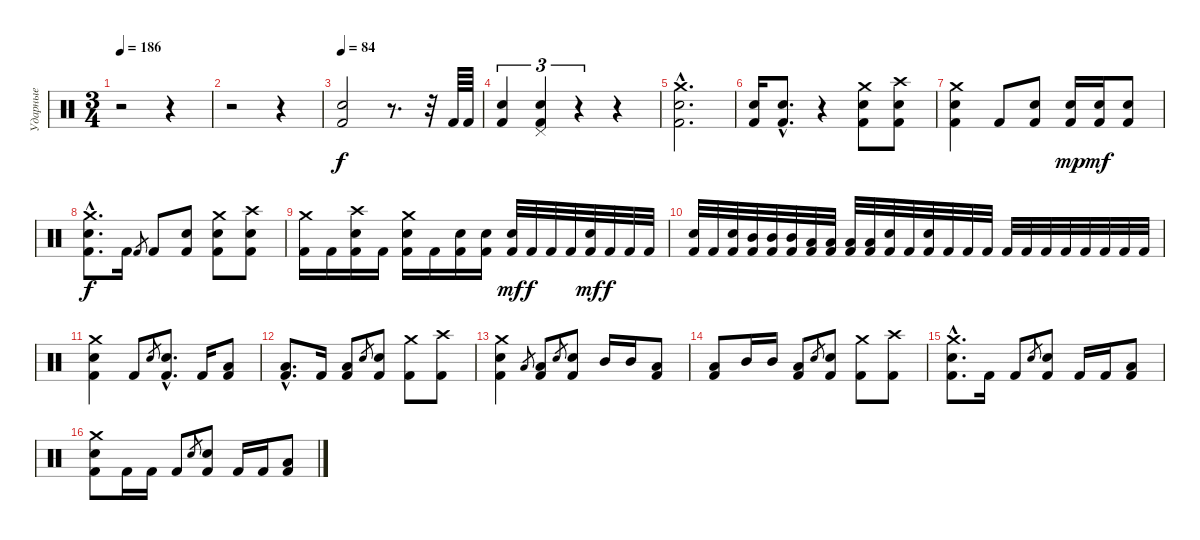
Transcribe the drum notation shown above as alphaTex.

\track ("Ударные" "Ударные") {instrument percussion}
\staff {score}
\articulation defaults
\ts (3 4)
\tempo 186
\clef neutral
\ks c
r.2{dy f} r.4 |
r.2 r.4 |
\tempo 84
("Snare (hit) 2" "Kick (hit) 2").2 r.8{d} r.32 "Kick (hit) 2".64 "Kick (hit) 2".64 |
("Snare (hit) 2" "Kick (hit) 2").4{tu (3 2)} ("Pedal Hi-Hat (hit)" "Snare (hit) 2" "Kick (hit) 2").4{tu (3 2)} r.4{tu (3 2)} r.4 |
("Crash medium (hit)"{hac} "Snare (hit) 2"{hac} "Kick (hit) 2"{hac}).2{d} |
("Snare (hit) 2" "Kick (hit) 2").16 ("Snare (hit) 2"{hac} "Kick (hit) 2"{hac}).8{d} r.4 ("Crash medium (hit)" "Snare (hit) 2" "Kick (hit) 2").8 ("Crash high (hit)" "Snare (hit) 2" "Kick (hit) 2").8 |
("Crash medium (hit)" "Snare (hit) 2" "Kick (hit) 2").4 "Kick (hit) 2".8 ("Snare (hit) 2" "Kick (hit) 2").8 ("Electric Snare (hit)" "Kick (hit) 2").16{dy mp} ("Electric Snare (hit)" "Kick (hit) 2").16{dy mf} ("Snare (hit) 2" "Kick (hit) 2").8 |
("Crash medium (hit)"{hac} "Snare (hit) 2"{hac} "Kick (hit) 2"{hac}).8{d dy f} "Kick (hit) 2".16 "Kick (hit) 2".8{gr} "Kick (hit) 2".8 ("Snare (hit) 2" "Kick (hit) 2").8 ("Crash medium (hit)" "Snare (hit) 2" "Kick (hit) 2").8 ("Crash high (hit)" "Snare (hit) 2" "Kick (hit) 2").8 |
("Crash medium (hit)" "Kick (hit) 2").16 "Kick (hit) 2".16 ("Crash high (hit)" "Snare (hit) 2" "Kick (hit) 2").16 "Kick (hit) 2".16 ("Crash medium (hit)" "Snare (hit) 2" "Kick (hit) 2").16 "Kick (hit) 2".16 ("Snare (hit) 2" "Kick (hit) 2").16 ("Snare (hit) 2" "Kick (hit) 2").16 ("Snare (hit) 2" "Kick (hit) 2").32{dy mf} "Kick (hit) 2".32{dy f} "Kick (hit) 2".32 "Kick (hit) 2".32 ("Snare (hit) 2" "Kick (hit) 2").32{dy mf} "Kick (hit) 2".32{dy f} "Kick (hit) 2".32 "Kick (hit) 2".32 |
("Snare (hit) 2" "Kick (hit) 2").32 "Kick (hit) 2".32 ("Snare (hit) 2" "Kick (hit) 2").32 ("Mid Tom (hit)" "Kick (hit) 2").32 ("Mid Tom (hit)" "Kick (hit) 2").32 ("Mid Tom (hit)" "Kick (hit) 2").32 ("Low Tom (hit)" "Kick (hit) 2").32 ("Low Tom (hit)" "Kick (hit) 2").32 ("Low Tom (hit)" "Kick (hit) 2").32 ("Low Tom (hit)" "Kick (hit) 2").32 ("Snare (hit) 2" "Kick (hit) 2").32 "Kick (hit) 2".32 ("Snare (hit) 2" "Kick (hit) 2").32 "Kick (hit) 2".32 "Kick (hit) 2".32 "Kick (hit) 2".32 "Kick (hit) 2".32 "Kick (hit) 2".32 "Kick (hit) 2".32 "Kick (hit) 2".32 "Kick (hit) 2".32 "Kick (hit) 2".32 "Kick (hit) 2".32 "Kick (hit) 2".32 |
("Crash medium (hit)" "Snare (hit) 2" "Kick (hit) 2").4 "Kick (hit) 2".8 "Snare (hit) 2".8{gr} ("Snare (hit) 2"{hac} "Kick (hit) 2"{hac}).8{d} "Kick (hit) 2".16 ("Low Tom (hit)" "Kick (hit) 2").8 |
("Low Tom (hit)"{hac} "Kick (hit) 2"{hac}).8{d} "Kick (hit) 2".16 ("Low Tom (hit)" "Kick (hit) 2").8 "Snare (hit) 2".8{gr} ("Snare (hit) 2" "Kick (hit) 2").8 ("Crash medium (hit)" "Kick (hit) 2").8 ("Crash high (hit)" "Kick (hit) 2").8 |
("Crash medium (hit)" "Snare (hit) 2" "Kick (hit) 2").4 "Low Tom (hit)".8{gr} ("Low Tom (hit)" "Kick (hit) 2").8 "Snare (hit) 2".8{gr} ("Snare (hit) 2" "Kick (hit) 2").8 "Mid Tom (hit)".16 "Mid Tom (hit)".16 ("Low Tom (hit)" "Kick (hit) 2").8 |
("Low Tom (hit)" "Kick (hit) 2").8 "Mid Tom (hit)".16 "Mid Tom (hit)".16 ("Low Tom (hit)" "Kick (hit) 2").8 "Snare (hit) 2".8{gr} ("Snare (hit) 2" "Kick (hit) 2").8 ("Crash medium (hit)" "Kick (hit) 2").8 ("Crash high (hit)" "Kick (hit) 2").8 |
("Crash medium (hit)"{hac} "Snare (hit) 2"{hac} "Kick (hit) 2"{hac}).8{d} "Kick (hit) 2".16 "Kick (hit) 2".8 "Snare (hit) 2".8{gr} ("Snare (hit) 2" "Kick (hit) 2").8 "Kick (hit) 2".16 "Kick (hit) 2".16 ("Low Tom (hit)" "Kick (hit) 2").8 |
("Crash medium (hit)" "Snare (hit) 2" "Kick (hit) 2").8 "Kick (hit) 2".16 "Kick (hit) 2".16 "Kick (hit) 2".8 "Snare (hit) 2".8{gr} ("Snare (hit) 2" "Kick (hit) 2").8 "Kick (hit) 2".16 "Kick (hit) 2".16 ("Low Tom (hit)" "Kick (hit) 2").8
